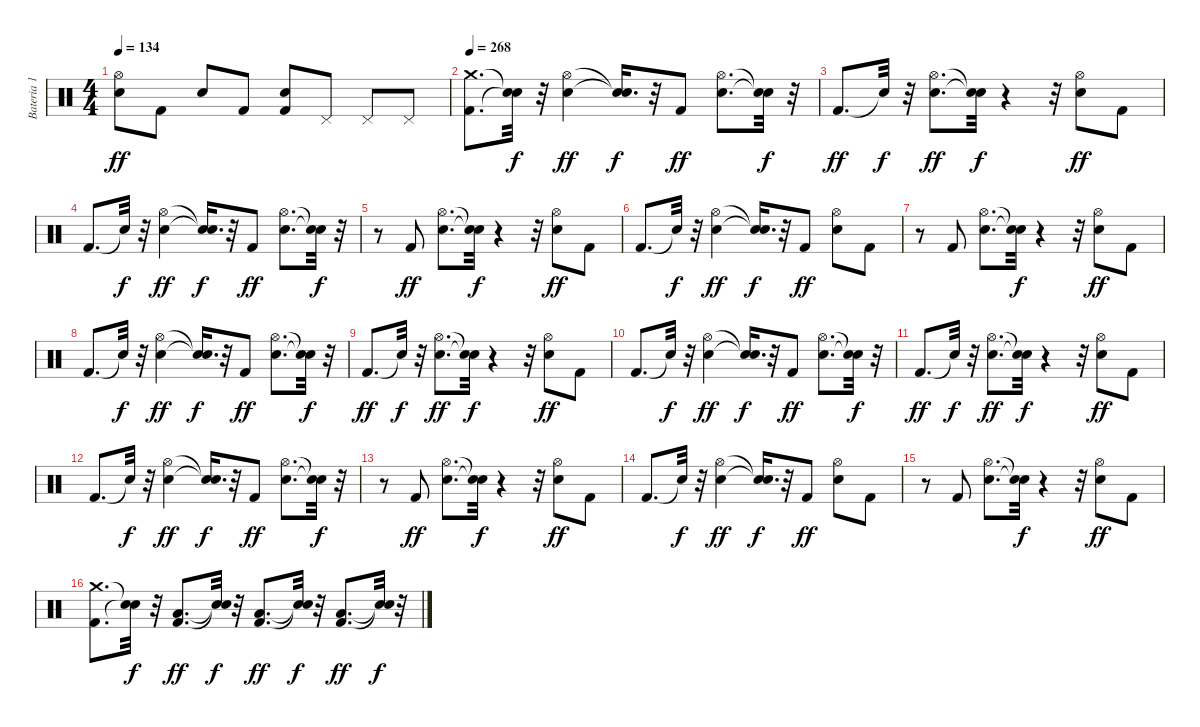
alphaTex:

\track ("Bateria 1" "Bateria 1") {instrument percussion}
\staff {score}
\articulation defaults
\ts (4 4)
\tempo 134
\clef neutral
\ks c
("Electric Snare (hit)" "Hi-Hat (open)").8{dy ff} "Kick (hit) 2".8 "Electric Snare (hit)".8 "Kick (hit) 2".8 ("Kick (hit) 2" "Electric Snare (hit)").8 "Pedal Hi-Hat (hit)".8 "Pedal Hi-Hat (hit)".8 "Pedal Hi-Hat (hit)".8 |
\tempo 268
("Kick (hit) 2" "Crash medium (hit)").8{d} ("Snare (hit)"{t} "Snare (hit)"{t}).32{dy f} r.32 ("Electric Snare (hit)" "Hi-Hat (open)").4{dy ff} ("Snare (hit)"{t} "Snare (hit)"{t}).16{d dy f} r.32 "Kick (hit) 2".8{dy ff} ("Electric Snare (hit)" "Hi-Hat (open)").8{d} ("Snare (hit)"{t} "Snare (hit)"{t}).32{dy f} r.32 |
"Kick (hit) 2".8{d dy ff} "Snare (hit)"{t}.32{dy f} r.32 ("Electric Snare (hit)" "Hi-Hat (open)").8{d dy ff} ("Snare (hit)"{t} "Snare (hit)"{t}).32{dy f} r.4 r.32 ("Electric Snare (hit)" "Hi-Hat (open)").8{dy ff} "Kick (hit) 2".8 |
"Kick (hit) 2".8{d} "Snare (hit)"{t}.32{dy f} r.32 ("Electric Snare (hit)" "Hi-Hat (open)").4{dy ff} ("Snare (hit)"{t} "Snare (hit)"{t}).16{d dy f} r.32 "Kick (hit) 2".8{dy ff} ("Electric Snare (hit)" "Hi-Hat (open)").8{d} ("Snare (hit)"{t} "Snare (hit)"{t}).32{dy f} r.32 |
r.8 "Kick (hit) 2".8{dy ff} ("Electric Snare (hit)" "Hi-Hat (open)").8{d} ("Snare (hit)"{t} "Snare (hit)"{t}).32{dy f} r.4 r.32 ("Electric Snare (hit)" "Hi-Hat (open)").8{dy ff} "Kick (hit) 2".8 |
"Kick (hit) 2".8{d} "Snare (hit)"{t}.32{dy f} r.32 ("Electric Snare (hit)" "Hi-Hat (open)").4{dy ff} ("Snare (hit)"{t} "Snare (hit)"{t}).16{d dy f} r.32 "Kick (hit) 2".8{dy ff} ("Electric Snare (hit)" "Hi-Hat (open)").8 "Kick (hit) 2".8 |
r.8 "Kick (hit) 2".8 ("Electric Snare (hit)" "Hi-Hat (open)").8{d} ("Snare (hit)"{t} "Snare (hit)"{t}).32{dy f} r.4 r.32 ("Electric Snare (hit)" "Hi-Hat (open)").8{dy ff} "Kick (hit) 2".8 |
"Kick (hit) 2".8{d} "Snare (hit)"{t}.32{dy f} r.32 ("Electric Snare (hit)" "Hi-Hat (open)").4{dy ff} ("Snare (hit)"{t} "Snare (hit)"{t}).16{d dy f} r.32 "Kick (hit) 2".8{dy ff} ("Electric Snare (hit)" "Hi-Hat (open)").8{d} ("Snare (hit)"{t} "Snare (hit)"{t}).32{dy f} r.32 |
"Kick (hit) 2".8{d dy ff} "Snare (hit)"{t}.32{dy f} r.32 ("Electric Snare (hit)" "Hi-Hat (open)").8{d dy ff} ("Snare (hit)"{t} "Snare (hit)"{t}).32{dy f} r.4 r.32 ("Electric Snare (hit)" "Hi-Hat (open)").8{dy ff} "Kick (hit) 2".8 |
"Kick (hit) 2".8{d} "Snare (hit)"{t}.32{dy f} r.32 ("Electric Snare (hit)" "Hi-Hat (open)").4{dy ff} ("Snare (hit)"{t} "Snare (hit)"{t}).16{d dy f} r.32 "Kick (hit) 2".8{dy ff} ("Electric Snare (hit)" "Hi-Hat (open)").8{d} ("Snare (hit)"{t} "Snare (hit)"{t}).32{dy f} r.32 |
"Kick (hit) 2".8{d dy ff} "Snare (hit)"{t}.32{dy f} r.32 ("Electric Snare (hit)" "Hi-Hat (open)").8{d dy ff} ("Snare (hit)"{t} "Snare (hit)"{t}).32{dy f} r.4 r.32 ("Electric Snare (hit)" "Hi-Hat (open)").8{dy ff} "Kick (hit) 2".8 |
"Kick (hit) 2".8{d} "Snare (hit)"{t}.32{dy f} r.32 ("Electric Snare (hit)" "Hi-Hat (open)").4{dy ff} ("Snare (hit)"{t} "Snare (hit)"{t}).16{d dy f} r.32 "Kick (hit) 2".8{dy ff} ("Electric Snare (hit)" "Hi-Hat (open)").8{d} ("Snare (hit)"{t} "Snare (hit)"{t}).32{dy f} r.32 |
r.8 "Kick (hit) 2".8{dy ff} ("Electric Snare (hit)" "Hi-Hat (open)").8{d} ("Snare (hit)"{t} "Snare (hit)"{t}).32{dy f} r.4 r.32 ("Electric Snare (hit)" "Hi-Hat (open)").8{dy ff} "Kick (hit) 2".8 |
"Kick (hit) 2".8{d} "Snare (hit)"{t}.32{dy f} r.32 ("Electric Snare (hit)" "Hi-Hat (open)").4{dy ff} ("Snare (hit)"{t} "Snare (hit)"{t}).16{d dy f} r.32 "Kick (hit) 2".8{dy ff} ("Electric Snare (hit)" "Hi-Hat (open)").8 "Kick (hit) 2".8 |
r.8 "Kick (hit) 2".8 ("Electric Snare (hit)" "Hi-Hat (open)").8{d} ("Snare (hit)"{t} "Snare (hit)"{t}).32{dy f} r.4 r.32 ("Electric Snare (hit)" "Hi-Hat (open)").8{dy ff} "Kick (hit) 2".8 |
("Kick (hit) 2" "Crash medium (hit)").8{d} ("Snare (hit)"{t} "Snare (hit)"{t}).32{dy f} r.32 ("Kick (hit) 2" "Low Floor Tom (hit)").8{d dy ff} ("Snare (hit)"{t} "Snare (hit)"{t}).32{dy f} r.32 ("Kick (hit) 2" "Low Floor Tom (hit)").8{d dy ff} ("Snare (hit)"{t} "Snare (hit)"{t}).32{dy f} r.32 ("Kick (hit) 2" "Low Floor Tom (hit)").8{d dy ff} ("Snare (hit)"{t} "Snare (hit)"{t}).32{dy f} r.32
